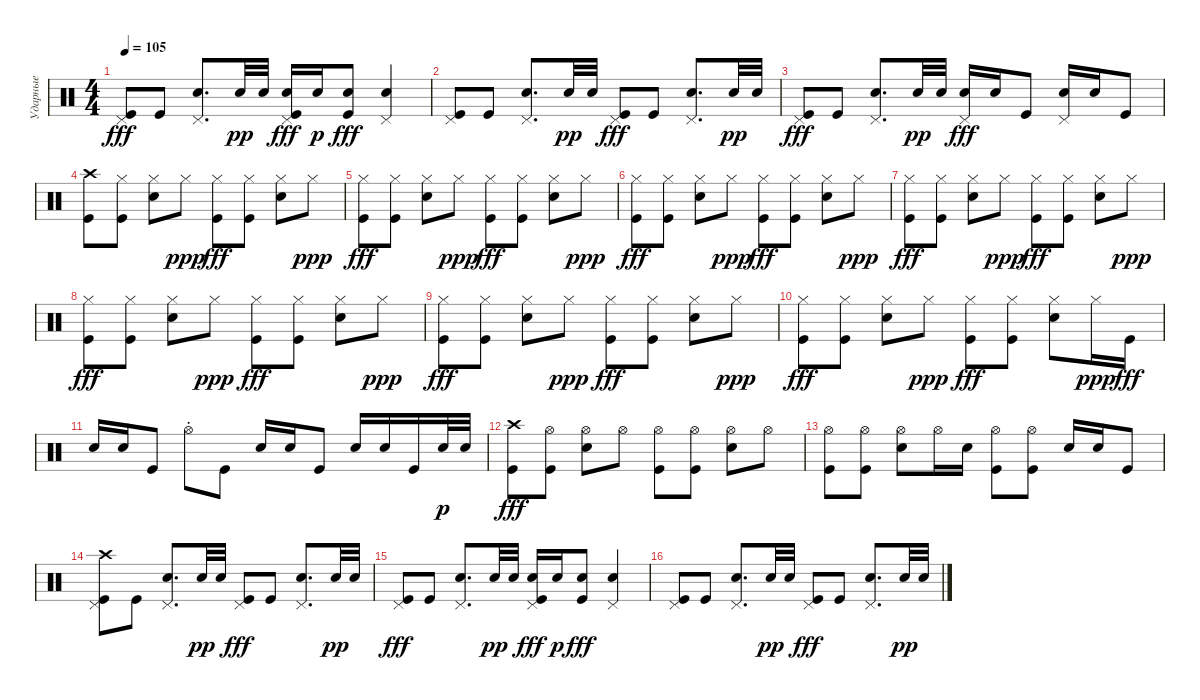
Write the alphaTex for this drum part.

\track ("Ударные" "Ударные") {instrument percussion}
\staff {score}
\articulation defaults
\ts (4 4)
\tempo 105
\clef neutral
\ks c
("Kick (hit)" "Pedal Hi-Hat (hit)").8{dy fff} "Kick (hit)".8 ("Snare (hit) 2" "Pedal Hi-Hat (hit)").8{d} "Snare (hit) 2".32{dy pp} "Snare (hit) 2".32 ("Snare (hit) 2" "Kick (hit)" "Pedal Hi-Hat (hit)").16{dy fff} "Snare (hit) 2".16{dy p} ("Snare (hit) 2" "Kick (hit)").8{dy fff} ("Snare (hit) 2" "Pedal Hi-Hat (hit)").4 |
("Kick (hit)" "Pedal Hi-Hat (hit)").8 "Kick (hit)".8 ("Snare (hit) 2" "Pedal Hi-Hat (hit)").8{d} "Snare (hit) 2".32{dy pp} "Snare (hit) 2".32 ("Kick (hit)" "Pedal Hi-Hat (hit)").8{dy fff} "Kick (hit)".8 ("Snare (hit) 2" "Pedal Hi-Hat (hit)").8{d} "Snare (hit) 2".32{dy pp} "Snare (hit) 2".32 |
("Kick (hit)" "Pedal Hi-Hat (hit)").8{dy fff} "Kick (hit)".8 ("Snare (hit) 2" "Pedal Hi-Hat (hit)").8{d} "Snare (hit) 2".32{dy pp} "Snare (hit) 2".32 ("Snare (hit) 2" "Pedal Hi-Hat (hit)").16{dy fff} "Snare (hit) 2".16 "Kick (hit)".8 ("Snare (hit) 2" "Pedal Hi-Hat (hit)").16 "Snare (hit) 2".16 "Kick (hit)".8 |
("Kick (hit)" "Crash high (hit)").8 ("Hi-Hat (closed)" "Kick (hit)").8 ("Hi-Hat (closed)" "Snare (hit) 2").8 "Hi-Hat (closed)".8{dy ppp} ("Kick (hit)" "Hi-Hat (closed)").8{dy fff} ("Hi-Hat (closed)" "Kick (hit)").8 ("Hi-Hat (closed)" "Snare (hit) 2").8 "Hi-Hat (closed)".8{dy ppp} |
("Kick (hit)" "Hi-Hat (closed)").8{dy fff} ("Hi-Hat (closed)" "Kick (hit)").8 ("Hi-Hat (closed)" "Snare (hit) 2").8 "Hi-Hat (closed)".8{dy ppp} ("Kick (hit)" "Hi-Hat (closed)").8{dy fff} ("Hi-Hat (closed)" "Kick (hit)").8 ("Hi-Hat (closed)" "Snare (hit) 2").8 "Hi-Hat (closed)".8{dy ppp} |
("Kick (hit)" "Hi-Hat (closed)").8{dy fff} ("Hi-Hat (closed)" "Kick (hit)").8 ("Hi-Hat (closed)" "Snare (hit) 2").8 "Hi-Hat (closed)".8{dy ppp} ("Kick (hit)" "Hi-Hat (closed)").8{dy fff} ("Hi-Hat (closed)" "Kick (hit)").8 ("Hi-Hat (closed)" "Snare (hit) 2").8 "Hi-Hat (closed)".8{dy ppp} |
("Kick (hit)" "Hi-Hat (closed)").8{dy fff} ("Hi-Hat (closed)" "Kick (hit)").8 ("Hi-Hat (closed)" "Snare (hit) 2").8 "Hi-Hat (closed)".8{dy ppp} ("Kick (hit)" "Hi-Hat (closed)").8{dy fff} ("Hi-Hat (closed)" "Kick (hit)").8 ("Hi-Hat (closed)" "Snare (hit) 2").8 "Hi-Hat (closed)".8{dy ppp} |
("Kick (hit)" "Hi-Hat (closed)").8{dy fff} ("Hi-Hat (closed)" "Kick (hit)").8 ("Hi-Hat (closed)" "Snare (hit) 2").8 "Hi-Hat (closed)".8{dy ppp} ("Kick (hit)" "Hi-Hat (closed)").8{dy fff} ("Hi-Hat (closed)" "Kick (hit)").8 ("Hi-Hat (closed)" "Snare (hit) 2").8 "Hi-Hat (closed)".8{dy ppp} |
("Kick (hit)" "Hi-Hat (closed)").8{dy fff} ("Hi-Hat (closed)" "Kick (hit)").8 ("Hi-Hat (closed)" "Snare (hit) 2").8 "Hi-Hat (closed)".8{dy ppp} ("Kick (hit)" "Hi-Hat (closed)").8{dy fff} ("Hi-Hat (closed)" "Kick (hit)").8 ("Hi-Hat (closed)" "Snare (hit) 2").8 "Hi-Hat (closed)".8{dy ppp} |
("Kick (hit)" "Hi-Hat (closed)").8{dy fff} ("Hi-Hat (closed)" "Kick (hit)").8 ("Hi-Hat (closed)" "Snare (hit) 2").8 "Hi-Hat (closed)".8{dy ppp} ("Kick (hit)" "Hi-Hat (closed)").8{dy fff} ("Hi-Hat (closed)" "Kick (hit)").8 ("Hi-Hat (closed)" "Snare (hit) 2").8 "Hi-Hat (closed)".16{dy ppp} "Kick (hit)".16{dy fff} |
"Snare (hit) 2".16 "Snare (hit) 2".16 "Kick (hit)".8 "Hi-Hat (open)"{st}.8 "Kick (hit)".8 "Snare (hit) 2".16 "Snare (hit) 2".16 "Kick (hit)".8 "Snare (hit) 2".16 "Snare (hit) 2".16 "Kick (hit)".16 "Snare (hit) 2".32{dy p} "Snare (hit) 2".32 |
("Kick (hit)" "Crash high (hit)").8{dy fff} ("Hi-Hat (open)" "Kick (hit)").8 ("Snare (hit) 2" "Hi-Hat (open)").8 "Hi-Hat (open)".8 ("Hi-Hat (open)" "Kick (hit)").8 ("Kick (hit)" "Hi-Hat (open)").8 ("Snare (hit) 2" "Hi-Hat (open)").8 "Hi-Hat (open)".8 |
("Hi-Hat (open)" "Kick (hit)").8 ("Kick (hit)" "Hi-Hat (open)").8 ("Snare (hit) 2" "Hi-Hat (open)").8 "Hi-Hat (open)".16 "Snare (hit) 2".16 ("Kick (hit)" "Hi-Hat (open)").8 ("Kick (hit)" "Hi-Hat (open)").8 "Snare (hit) 2".16 "Snare (hit) 2".16 "Kick (hit)".8 |
("Pedal Hi-Hat (hit)" "Crash high (hit)" "Kick (hit)").8 "Kick (hit)".8 ("Snare (hit) 2" "Pedal Hi-Hat (hit)").8{d} "Snare (hit) 2".32{dy pp} "Snare (hit) 2".32 ("Kick (hit)" "Pedal Hi-Hat (hit)").8{dy fff} "Kick (hit)".8 ("Snare (hit) 2" "Pedal Hi-Hat (hit)").8{d} "Snare (hit) 2".32{dy pp} "Snare (hit) 2".32 |
("Kick (hit)" "Pedal Hi-Hat (hit)").8{dy fff} "Kick (hit)".8 ("Snare (hit) 2" "Pedal Hi-Hat (hit)").8{d} "Snare (hit) 2".32{dy pp} "Snare (hit) 2".32 ("Snare (hit) 2" "Kick (hit)" "Pedal Hi-Hat (hit)").16{dy fff} "Snare (hit) 2".16{dy p} ("Snare (hit) 2" "Kick (hit)").8{dy fff} ("Snare (hit) 2" "Pedal Hi-Hat (hit)").4 |
("Kick (hit)" "Pedal Hi-Hat (hit)").8 "Kick (hit)".8 ("Snare (hit) 2" "Pedal Hi-Hat (hit)").8{d} "Snare (hit) 2".32{dy pp} "Snare (hit) 2".32 ("Kick (hit)" "Pedal Hi-Hat (hit)").8{dy fff} "Kick (hit)".8 ("Snare (hit) 2" "Pedal Hi-Hat (hit)").8{d} "Snare (hit) 2".32{dy pp} "Snare (hit) 2".32
